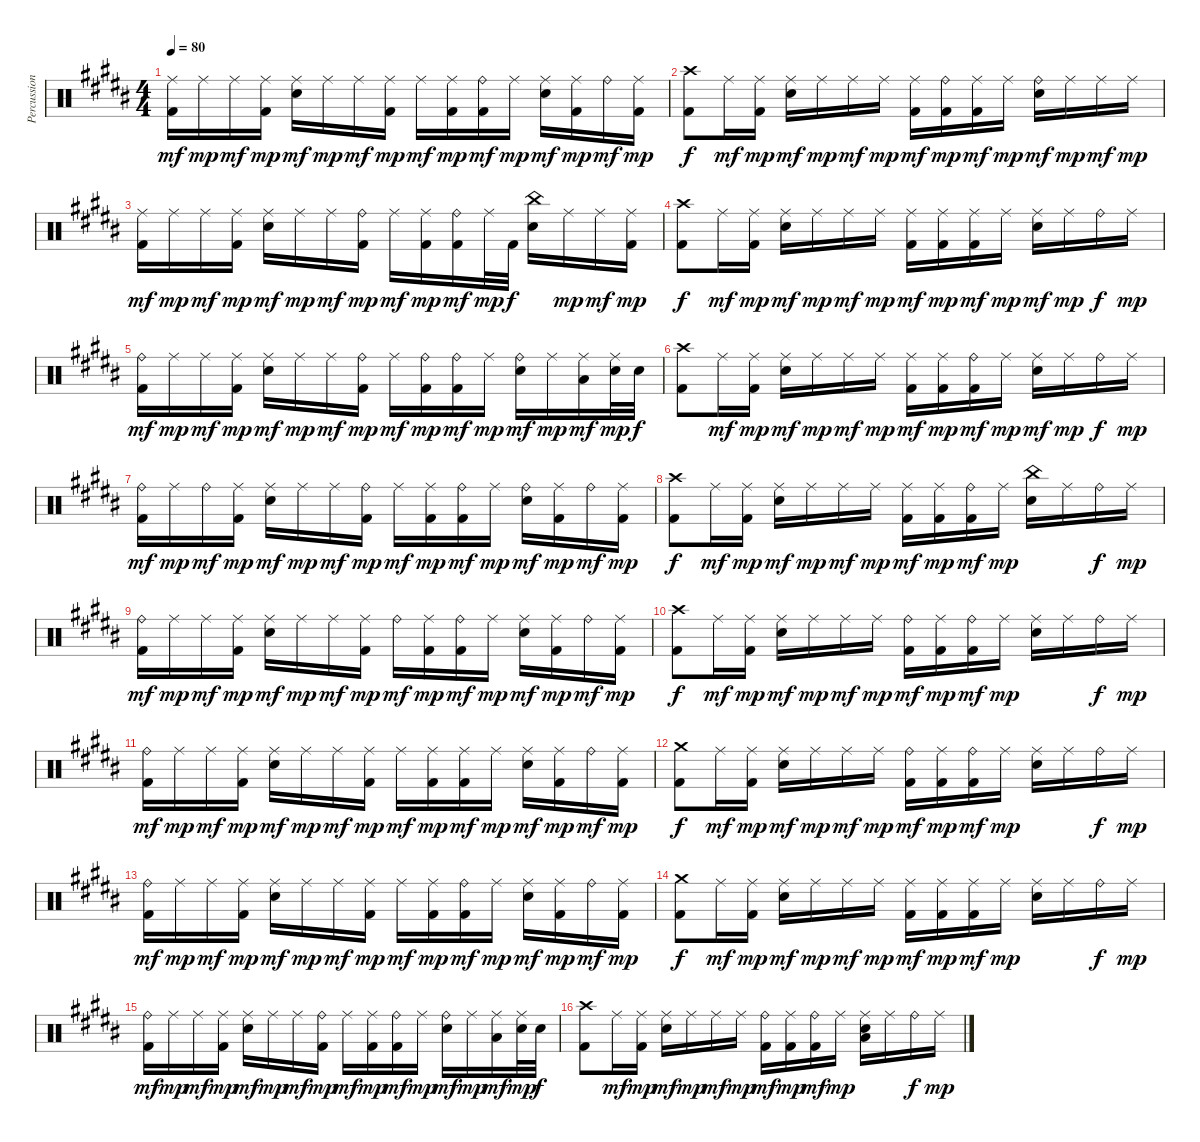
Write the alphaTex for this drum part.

\track ("Percussion" "Percussion") {instrument percussion}
\staff {score}
\articulation defaults
\ts (4 4)
\tempo 80
\clef neutral
\ks b
("Ride (middle)" "Kick (hit) 2").16{dy mf} "Ride (middle)".16{dy mp} "Ride (middle)".16{dy mf} ("Ride (middle)" "Kick (hit) 2").16{dy mp} ("Ride (middle)" "Snare (hit) 2").16{dy mf} "Ride (middle)".16{dy mp} "Ride (middle)".16{dy mf} ("Ride (middle)" "Kick (hit) 2").16{dy mp} "Ride (middle)".16{dy mf} ("Ride (middle)" "Kick (hit) 2").16{dy mp} ("Ride (bell)" "Kick (hit) 2").16{dy mf} "Ride (middle)".16{dy mp} ("Ride (middle)" "Snare (hit) 2").16{dy mf} ("Ride (middle)" "Kick (hit) 2").16{dy mp} "Ride (bell)".16{dy mf} ("Ride (middle)" "Kick (hit) 2").16{dy mp} |
("Crash high (hit)" "Kick (hit) 2").8{dy f} "Ride (middle)".16{dy mf} ("Ride (middle)" "Kick (hit) 2").16{dy mp} ("Ride (middle)" "Snare (hit) 2").16{dy mf} "Ride (middle)".16{dy mp} "Ride (middle)".16{dy mf} "Ride (middle)".16{dy mp} ("Ride (middle)" "Kick (hit) 2").16{dy mf} ("Ride (bell)" "Kick (hit) 2").16{dy mp} ("Ride (middle)" "Kick (hit) 2").16{dy mf} "Ride (middle)".16{dy mp} ("Ride (bell)" "Snare (hit) 2").16{dy mf} "Ride (middle)".16{dy mp} "Ride (middle)".16{dy mf} "Ride (middle)".16{dy mp} |
("Ride (middle)" "Kick (hit) 2").16{dy mf} "Ride (middle)".16{dy mp} "Ride (middle)".16{dy mf} ("Ride (middle)" "Kick (hit) 2").16{dy mp} ("Ride (middle)" "Snare (hit) 2").16{dy mf} "Ride (middle)".16{dy mp} "Ride (middle)".16{dy mf} ("Ride (bell)" "Kick (hit) 2").16{dy mp} "Ride (middle)".16{dy mf} ("Ride (middle)" "Kick (hit) 2").16{dy mp} ("Ride (bell)" "Kick (hit) 2").16{dy mf} "Ride (middle)".32{dy mp} "Kick (hit) 2".32{dy f} ("China (hit)" "Snare (hit) 2").16 "Ride (middle)".16{dy mp} "Ride (middle)".16{dy mf} ("Ride (middle)" "Kick (hit) 2").16{dy mp} |
("Crash high (hit)" "Kick (hit) 2").8{dy f} "Ride (middle)".16{dy mf} ("Ride (middle)" "Kick (hit) 2").16{dy mp} ("Ride (middle)" "Snare (hit) 2").16{dy mf} "Ride (middle)".16{dy mp} "Ride (middle)".16{dy mf} "Ride (middle)".16{dy mp} ("Ride (middle)" "Kick (hit) 2").16{dy mf} ("Ride (middle)" "Kick (hit) 2").16{dy mp} ("Ride (middle)" "Kick (hit) 2").16{dy mf} "Ride (middle)".16{dy mp} ("Ride (middle)" "Snare (hit) 2").16{dy mf} "Ride (middle)".16{dy mp} "Ride (bell)".16{dy f} "Ride (middle)".16{dy mp} |
("Ride (bell)" "Kick (hit) 2").16{dy mf} "Ride (middle)".16{dy mp} "Ride (middle)".16{dy mf} ("Ride (middle)" "Kick (hit) 2").16{dy mp} ("Ride (middle)" "Snare (hit) 2").16{dy mf} "Ride (middle)".16{dy mp} "Ride (middle)".16{dy mf} ("Ride (bell)" "Kick (hit) 2").16{dy mp} "Ride (middle)".16{dy mf} ("Ride (bell)" "Kick (hit) 2").16{dy mp} ("Ride (bell)" "Kick (hit) 2").16{dy mf} "Ride (middle)".16{dy mp} ("Ride (bell)" "Snare (hit) 2").16{dy mf} "Ride (middle)".16{dy mp} ("Ride (middle)" "Low Tom (hit)").16{dy mf} ("Ride (middle)" "Snare (hit) 2").32{dy mp} "Snare (hit) 2".32{dy f} |
("Crash high (hit)" "Kick (hit) 2").8 "Ride (middle)".16{dy mf} ("Ride (middle)" "Kick (hit) 2").16{dy mp} ("Ride (middle)" "Snare (hit) 2").16{dy mf} "Ride (middle)".16{dy mp} "Ride (middle)".16{dy mf} "Ride (middle)".16{dy mp} ("Ride (middle)" "Kick (hit) 2").16{dy mf} ("Ride (middle)" "Kick (hit) 2").16{dy mp} ("Ride (bell)" "Kick (hit) 2").16{dy mf} "Ride (middle)".16{dy mp} ("Ride (middle)" "Snare (hit) 2").16{dy mf} "Ride (middle)".16{dy mp} "Ride (bell)".16{dy f} "Ride (middle)".16{dy mp} |
("Ride (bell)" "Kick (hit) 2").16{dy mf} "Ride (middle)".16{dy mp} "Ride (bell)".16{dy mf} ("Ride (middle)" "Kick (hit) 2").16{dy mp} ("Ride (middle)" "Snare (hit) 2").16{dy mf} "Ride (middle)".16{dy mp} "Ride (middle)".16{dy mf} ("Ride (bell)" "Kick (hit) 2").16{dy mp} "Ride (middle)".16{dy mf} ("Ride (middle)" "Kick (hit) 2").16{dy mp} ("Ride (bell)" "Kick (hit) 2").16{dy mf} "Ride (middle)".16{dy mp} ("Ride (bell)" "Snare (hit) 2").16{dy mf} ("Ride (middle)" "Kick (hit) 2").16{dy mp} "Ride (bell)".16{dy mf} ("Ride (middle)" "Kick (hit) 2").16{dy mp} |
("Crash high (hit)" "Kick (hit) 2").8{dy f} "Ride (middle)".16{dy mf} ("Ride (middle)" "Kick (hit) 2").16{dy mp} ("Ride (middle)" "Snare (hit) 2").16{dy mf} "Ride (middle)".16{dy mp} "Ride (middle)".16{dy mf} "Ride (middle)".16{dy mp} ("Ride (middle)" "Kick (hit) 2").16{dy mf} ("Ride (middle)" "Kick (hit) 2").16{dy mp} ("Ride (bell)" "Kick (hit) 2").16{dy mf} "Ride (middle)".16{dy mp} ("China (hit)" "Snare (hit) 2").16 "Ride (middle)".16 "Ride (bell)".16{dy f} "Ride (middle)".16{dy mp} |
("Ride (bell)" "Kick (hit) 2").16{dy mf} "Ride (middle)".16{dy mp} "Ride (middle)".16{dy mf} ("Ride (middle)" "Kick (hit) 2").16{dy mp} ("Ride (middle)" "Snare (hit) 2").16{dy mf} "Ride (middle)".16{dy mp} "Ride (middle)".16{dy mf} ("Ride (middle)" "Kick (hit) 2").16{dy mp} "Ride (bell)".16{dy mf} ("Ride (middle)" "Kick (hit) 2").16{dy mp} ("Ride (bell)" "Kick (hit) 2").16{dy mf} "Ride (middle)".16{dy mp} ("Ride (middle)" "Snare (hit) 2").16{dy mf} ("Ride (middle)" "Kick (hit) 2").16{dy mp} "Ride (bell)".16{dy mf} ("Ride (middle)" "Kick (hit) 2").16{dy mp} |
("Crash high (hit)" "Kick (hit) 2").8{dy f} "Ride (middle)".16{dy mf} ("Ride (middle)" "Kick (hit) 2").16{dy mp} ("Ride (middle)" "Snare (hit) 2").16{dy mf} "Ride (middle)".16{dy mp} "Ride (middle)".16{dy mf} "Ride (middle)".16{dy mp} ("Ride (bell)" "Kick (hit) 2").16{dy mf} ("Ride (middle)" "Kick (hit) 2").16{dy mp} ("Ride (bell)" "Kick (hit) 2").16{dy mf} "Ride (middle)".16{dy mp} ("Ride (middle)" "Snare (hit) 2").16 "Ride (middle)".16 "Ride (bell)".16{dy f} "Ride (middle)".16{dy mp} |
("Ride (bell)" "Kick (hit) 2").16{dy mf} "Ride (middle)".16{dy mp} "Ride (middle)".16{dy mf} ("Ride (middle)" "Kick (hit) 2").16{dy mp} ("Ride (middle)" "Snare (hit) 2").16{dy mf} "Ride (middle)".16{dy mp} "Ride (middle)".16{dy mf} ("Ride (middle)" "Kick (hit) 2").16{dy mp} "Ride (middle)".16{dy mf} ("Ride (middle)" "Kick (hit) 2").16{dy mp} ("Ride (middle)" "Kick (hit) 2").16{dy mf} "Ride (middle)".16{dy mp} ("Ride (middle)" "Snare (hit) 2").16{dy mf} ("Ride (middle)" "Kick (hit) 2").16{dy mp} "Ride (bell)".16{dy mf} ("Ride (middle)" "Kick (hit) 2").16{dy mp} |
("Crash medium (hit)" "Kick (hit) 2").8{dy f} "Ride (middle)".16{dy mf} ("Ride (middle)" "Kick (hit) 2").16{dy mp} ("Ride (middle)" "Snare (hit) 2").16{dy mf} "Ride (middle)".16{dy mp} "Ride (middle)".16{dy mf} "Ride (middle)".16{dy mp} ("Ride (bell)" "Kick (hit) 2").16{dy mf} ("Ride (middle)" "Kick (hit) 2").16{dy mp} ("Ride (bell)" "Kick (hit) 2").16{dy mf} "Ride (middle)".16{dy mp} ("Ride (middle)" "Snare (hit) 2").16 "Ride (middle)".16 "Ride (bell)".16{dy f} "Ride (middle)".16{dy mp} |
("Ride (bell)" "Kick (hit) 2").16{dy mf} "Ride (middle)".16{dy mp} "Ride (middle)".16{dy mf} ("Ride (middle)" "Kick (hit) 2").16{dy mp} ("Ride (middle)" "Snare (hit) 2").16{dy mf} "Ride (middle)".16{dy mp} "Ride (middle)".16{dy mf} ("Ride (middle)" "Kick (hit) 2").16{dy mp} "Ride (middle)".16{dy mf} ("Ride (middle)" "Kick (hit) 2").16{dy mp} ("Ride (bell)" "Kick (hit) 2").16{dy mf} "Ride (middle)".16{dy mp} ("Ride (middle)" "Snare (hit) 2").16{dy mf} ("Ride (middle)" "Kick (hit) 2").16{dy mp} "Ride (bell)".16{dy mf} ("Ride (middle)" "Kick (hit) 2").16{dy mp} |
("Crash medium (hit)" "Kick (hit) 2").8{dy f} "Ride (middle)".16{dy mf} ("Ride (middle)" "Kick (hit) 2").16{dy mp} ("Ride (middle)" "Snare (hit) 2").16{dy mf} "Ride (middle)".16{dy mp} "Ride (middle)".16{dy mf} "Ride (middle)".16{dy mp} ("Ride (middle)" "Kick (hit) 2").16{dy mf} ("Ride (middle)" "Kick (hit) 2").16{dy mp} ("Ride (middle)" "Kick (hit) 2").16{dy mf} "Ride (middle)".16{dy mp} ("Ride (middle)" "Snare (hit) 2").16 "Ride (middle)".16 "Ride (bell)".16{dy f} "Ride (middle)".16{dy mp} |
("Ride (bell)" "Kick (hit) 2").16{dy mf} "Ride (middle)".16{dy mp} "Ride (middle)".16{dy mf} ("Ride (middle)" "Kick (hit) 2").16{dy mp} ("Ride (middle)" "Snare (hit) 2").16{dy mf} "Ride (middle)".16{dy mp} "Ride (middle)".16{dy mf} ("Ride (bell)" "Kick (hit) 2").16{dy mp} "Ride (middle)".16{dy mf} ("Ride (middle)" "Kick (hit) 2").16{dy mp} ("Ride (bell)" "Kick (hit) 2").16{dy mf} "Ride (middle)".16{dy mp} ("Ride (bell)" "Snare (hit) 2").16{dy mf} "Ride (middle)".16{dy mp} ("Ride (middle)" "Low Tom (hit)").16{dy mf} ("Ride (middle)" "Snare (hit) 2").32{dy mp} "Snare (hit) 2".32{dy f} |
("Crash high (hit)" "Kick (hit) 2").8 "Ride (middle)".16{dy mf} ("Ride (middle)" "Kick (hit) 2").16{dy mp} ("Ride (middle)" "Snare (hit) 2").16{dy mf} "Ride (middle)".16{dy mp} "Ride (middle)".16{dy mf} "Ride (middle)".16{dy mp} ("Ride (bell)" "Kick (hit) 2").16{dy mf} ("Ride (middle)" "Kick (hit) 2").16{dy mp} ("Ride (bell)" "Kick (hit) 2").16{dy mf} "Ride (middle)".16{dy mp} ("Ride (middle)" "Snare (hit) 2" "Low Tom (hit)").16 "Ride (middle)".16 "Ride (bell)".16{dy f} "Ride (middle)".16{dy mp}
